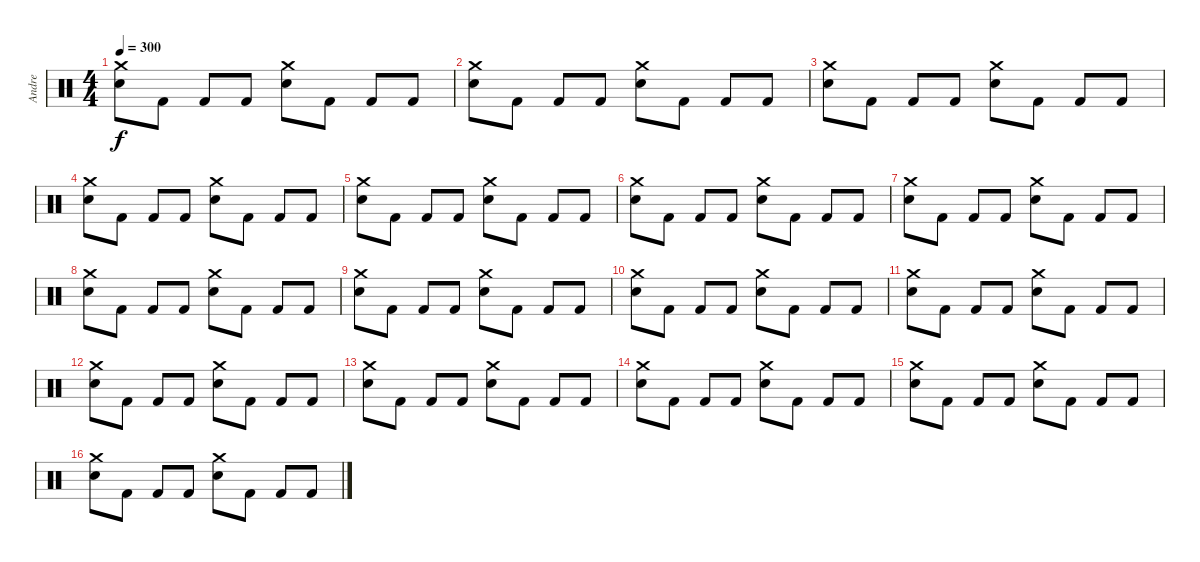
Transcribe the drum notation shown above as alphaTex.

\track ("Andre" "Andre") {instrument percussion}
\staff {score}
\articulation defaults
\ts (4 4)
\tempo 300
\clef neutral
\ks c
("Crash medium (hit)" "Electric Snare (hit)").8{dy f} "Kick (hit) 2".8 "Kick (hit) 2".8 "Kick (hit) 2".8 ("Crash medium (hit)" "Electric Snare (hit)").8 "Kick (hit) 2".8 "Kick (hit) 2".8 "Kick (hit) 2".8 |
("Crash medium (hit)" "Electric Snare (hit)").8 "Kick (hit) 2".8 "Kick (hit) 2".8 "Kick (hit) 2".8 ("Crash medium (hit)" "Electric Snare (hit)").8 "Kick (hit) 2".8 "Kick (hit) 2".8 "Kick (hit) 2".8 |
("Crash medium (hit)" "Electric Snare (hit)").8 "Kick (hit) 2".8 "Kick (hit) 2".8 "Kick (hit) 2".8 ("Crash medium (hit)" "Electric Snare (hit)").8 "Kick (hit) 2".8 "Kick (hit) 2".8 "Kick (hit) 2".8 |
("Crash medium (hit)" "Electric Snare (hit)").8 "Kick (hit) 2".8 "Kick (hit) 2".8 "Kick (hit) 2".8 ("Crash medium (hit)" "Electric Snare (hit)").8 "Kick (hit) 2".8 "Kick (hit) 2".8 "Kick (hit) 2".8 |
("Crash medium (hit)" "Electric Snare (hit)").8 "Kick (hit) 2".8 "Kick (hit) 2".8 "Kick (hit) 2".8 ("Crash medium (hit)" "Electric Snare (hit)").8 "Kick (hit) 2".8 "Kick (hit) 2".8 "Kick (hit) 2".8 |
("Crash medium (hit)" "Electric Snare (hit)").8 "Kick (hit) 2".8 "Kick (hit) 2".8 "Kick (hit) 2".8 ("Crash medium (hit)" "Electric Snare (hit)").8 "Kick (hit) 2".8 "Kick (hit) 2".8 "Kick (hit) 2".8 |
("Crash medium (hit)" "Electric Snare (hit)").8 "Kick (hit) 2".8 "Kick (hit) 2".8 "Kick (hit) 2".8 ("Crash medium (hit)" "Electric Snare (hit)").8 "Kick (hit) 2".8 "Kick (hit) 2".8 "Kick (hit) 2".8 |
("Crash medium (hit)" "Electric Snare (hit)").8 "Kick (hit) 2".8 "Kick (hit) 2".8 "Kick (hit) 2".8 ("Crash medium (hit)" "Electric Snare (hit)").8 "Kick (hit) 2".8 "Kick (hit) 2".8 "Kick (hit) 2".8 |
("Crash medium (hit)" "Electric Snare (hit)").8 "Kick (hit) 2".8 "Kick (hit) 2".8 "Kick (hit) 2".8 ("Crash medium (hit)" "Electric Snare (hit)").8 "Kick (hit) 2".8 "Kick (hit) 2".8 "Kick (hit) 2".8 |
("Crash medium (hit)" "Electric Snare (hit)").8 "Kick (hit) 2".8 "Kick (hit) 2".8 "Kick (hit) 2".8 ("Crash medium (hit)" "Electric Snare (hit)").8 "Kick (hit) 2".8 "Kick (hit) 2".8 "Kick (hit) 2".8 |
("Crash medium (hit)" "Electric Snare (hit)").8 "Kick (hit) 2".8 "Kick (hit) 2".8 "Kick (hit) 2".8 ("Crash medium (hit)" "Electric Snare (hit)").8 "Kick (hit) 2".8 "Kick (hit) 2".8 "Kick (hit) 2".8 |
("Crash medium (hit)" "Electric Snare (hit)").8 "Kick (hit) 2".8 "Kick (hit) 2".8 "Kick (hit) 2".8 ("Crash medium (hit)" "Electric Snare (hit)").8 "Kick (hit) 2".8 "Kick (hit) 2".8 "Kick (hit) 2".8 |
("Crash medium (hit)" "Electric Snare (hit)").8 "Kick (hit) 2".8 "Kick (hit) 2".8 "Kick (hit) 2".8 ("Crash medium (hit)" "Electric Snare (hit)").8 "Kick (hit) 2".8 "Kick (hit) 2".8 "Kick (hit) 2".8 |
("Crash medium (hit)" "Electric Snare (hit)").8 "Kick (hit) 2".8 "Kick (hit) 2".8 "Kick (hit) 2".8 ("Crash medium (hit)" "Electric Snare (hit)").8 "Kick (hit) 2".8 "Kick (hit) 2".8 "Kick (hit) 2".8 |
("Crash medium (hit)" "Electric Snare (hit)").8 "Kick (hit) 2".8 "Kick (hit) 2".8 "Kick (hit) 2".8 ("Crash medium (hit)" "Electric Snare (hit)").8 "Kick (hit) 2".8 "Kick (hit) 2".8 "Kick (hit) 2".8 |
("Crash medium (hit)" "Electric Snare (hit)").8 "Kick (hit) 2".8 "Kick (hit) 2".8 "Kick (hit) 2".8 ("Crash medium (hit)" "Electric Snare (hit)").8 "Kick (hit) 2".8 "Kick (hit) 2".8 "Kick (hit) 2".8
